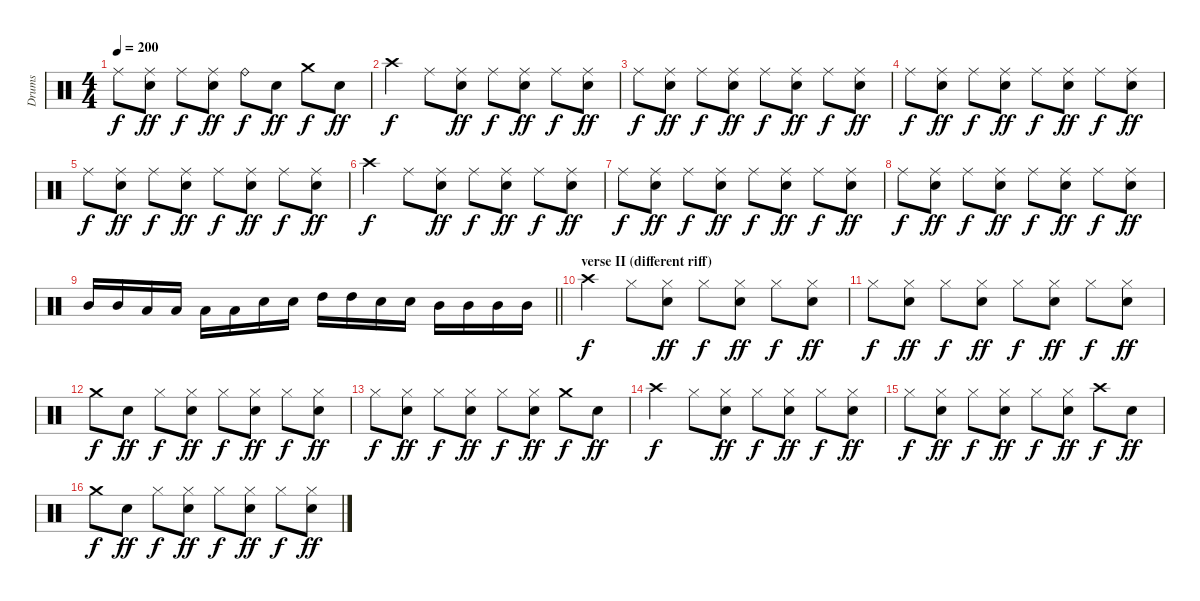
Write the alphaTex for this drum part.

\track ("Drums" "Drums") {instrument percussion}
\staff {score}
\articulation defaults
\ts (4 4)
\tempo 200
\clef neutral
\ks c "Ride (middle)".8{dy f}
("Ride (middle)" "Snare (hit) 2").8{dy ff} "Ride (middle)".8{dy f} ("Ride (middle)" "Snare (hit) 2").8{dy ff} "Ride (bell)".8{dy f} "Snare (hit) 2".8{dy ff} "Crash medium (hit)".8{dy f} "Snare (hit) 2".8{dy ff} |
"Crash high (hit)".4{dy f} "Ride (middle)".8 ("Ride (middle)" "Snare (hit) 2").8{dy ff} "Ride (middle)".8{dy f} ("Ride (middle)" "Snare (hit) 2").8{dy ff} "Ride (middle)".8{dy f} ("Ride (middle)" "Snare (hit) 2").8{dy ff} |
"Ride (middle)".8{dy f} ("Ride (middle)" "Snare (hit) 2").8{dy ff} "Ride (middle)".8{dy f} ("Ride (middle)" "Snare (hit) 2").8{dy ff} "Ride (middle)".8{dy f} ("Ride (middle)" "Snare (hit) 2").8{dy ff} "Ride (middle)".8{dy f} ("Ride (middle)" "Snare (hit) 2").8{dy ff} |
"Ride (middle)".8{dy f} ("Ride (middle)" "Snare (hit) 2").8{dy ff} "Ride (middle)".8{dy f} ("Ride (middle)" "Snare (hit) 2").8{dy ff} "Ride (middle)".8{dy f} ("Ride (middle)" "Snare (hit) 2").8{dy ff} "Ride (middle)".8{dy f} ("Ride (middle)" "Snare (hit) 2").8{dy ff} |
"Ride (middle)".8{dy f} ("Ride (middle)" "Snare (hit) 2").8{dy ff} "Ride (middle)".8{dy f} ("Ride (middle)" "Snare (hit) 2").8{dy ff} "Ride (middle)".8{dy f} ("Ride (middle)" "Snare (hit) 2").8{dy ff} "Ride (middle)".8{dy f} ("Ride (middle)" "Snare (hit) 2").8{dy ff} |
"Crash high (hit)".4{dy f} "Ride (middle)".8 ("Ride (middle)" "Snare (hit) 2").8{dy ff} "Ride (middle)".8{dy f} ("Ride (middle)" "Snare (hit) 2").8{dy ff} "Ride (middle)".8{dy f} ("Ride (middle)" "Snare (hit) 2").8{dy ff} |
"Ride (middle)".8{dy f} ("Ride (middle)" "Snare (hit) 2").8{dy ff} "Ride (middle)".8{dy f} ("Ride (middle)" "Snare (hit) 2").8{dy ff} "Ride (middle)".8{dy f} ("Ride (middle)" "Snare (hit) 2").8{dy ff} "Ride (middle)".8{dy f} ("Ride (middle)" "Snare (hit) 2").8{dy ff} |
"Ride (middle)".8{dy f} ("Ride (middle)" "Snare (hit) 2").8{dy ff} "Ride (middle)".8{dy f} ("Ride (middle)" "Snare (hit) 2").8{dy ff} "Ride (middle)".8{dy f} ("Ride (middle)" "Snare (hit) 2").8{dy ff} "Ride (middle)".8{dy f} ("Ride (middle)" "Snare (hit) 2").8{dy ff} |
\barLineRight lightlight "Mid Tom (hit)".16 "Mid Tom (hit)".16 "Low Tom (hit)".16 "Low Tom (hit)".16 "Low Tom (hit)".16 "Low Tom (hit)".16 "Snare (hit) 2".16 "Snare (hit) 2".16 "High Tom (hit)".16 "High Tom (hit)".16 "Snare (hit) 2".16 "Snare (hit) 2".16 "Mid Tom (hit)".16 "Mid Tom (hit)".16 "Mid Tom (hit)".16 "Mid Tom (hit)".16
|
\section ("" "verse II (different riff)")
"Crash high (hit)".4{dy f} "Hi-Hat (closed)".8 ("Hi-Hat (closed)" "Snare (hit) 2").8{dy ff} "Hi-Hat (closed)".8{dy f} ("Hi-Hat (closed)" "Snare (hit) 2").8{dy ff} "Hi-Hat (closed)".8{dy f} ("Hi-Hat (closed)" "Snare (hit) 2").8{dy ff} |
"Hi-Hat (closed)".8{dy f} ("Hi-Hat (closed)" "Snare (hit) 2").8{dy ff} "Hi-Hat (closed)".8{dy f} ("Hi-Hat (closed)" "Snare (hit) 2").8{dy ff} "Hi-Hat (closed)".8{dy f} ("Hi-Hat (closed)" "Snare (hit) 2").8{dy ff} "Hi-Hat (closed)".8{dy f} ("Hi-Hat (closed)" "Snare (hit) 2").8{dy ff} |
"Crash medium (hit)".8{dy f} "Snare (hit) 2".8{dy ff} "Hi-Hat (closed)".8{dy f} ("Hi-Hat (closed)" "Snare (hit) 2").8{dy ff} "Hi-Hat (closed)".8{dy f} ("Hi-Hat (closed)" "Snare (hit) 2").8{dy ff} "Hi-Hat (closed)".8{dy f} ("Hi-Hat (closed)" "Snare (hit) 2").8{dy ff} |
"Hi-Hat (closed)".8{dy f} ("Hi-Hat (closed)" "Snare (hit) 2").8{dy ff} "Hi-Hat (closed)".8{dy f} ("Hi-Hat (closed)" "Snare (hit) 2").8{dy ff} "Hi-Hat (closed)".8{dy f} ("Hi-Hat (closed)" "Snare (hit) 2").8{dy ff} "Crash medium (hit)".8{dy f} "Snare (hit) 2".8{dy ff} |
"Crash high (hit)".4{dy f} "Hi-Hat (closed)".8 ("Hi-Hat (closed)" "Snare (hit) 2").8{dy ff} "Hi-Hat (closed)".8{dy f} ("Hi-Hat (closed)" "Snare (hit) 2").8{dy ff} "Hi-Hat (closed)".8{dy f} ("Hi-Hat (closed)" "Snare (hit) 2").8{dy ff} |
"Hi-Hat (closed)".8{dy f} ("Hi-Hat (closed)" "Snare (hit) 2").8{dy ff} "Hi-Hat (closed)".8{dy f} ("Hi-Hat (closed)" "Snare (hit) 2").8{dy ff} "Hi-Hat (closed)".8{dy f} ("Hi-Hat (closed)" "Snare (hit) 2").8{dy ff} "Crash high (hit)".8{dy f} "Snare (hit) 2".8{dy ff} |
"Crash medium (hit)".8{dy f} "Snare (hit) 2".8{dy ff} "Hi-Hat (closed)".8{dy f} ("Hi-Hat (closed)" "Snare (hit) 2").8{dy ff} "Hi-Hat (closed)".8{dy f} ("Hi-Hat (closed)" "Snare (hit) 2").8{dy ff} "Hi-Hat (closed)".8{dy f} ("Hi-Hat (closed)" "Snare (hit) 2").8{dy ff}
